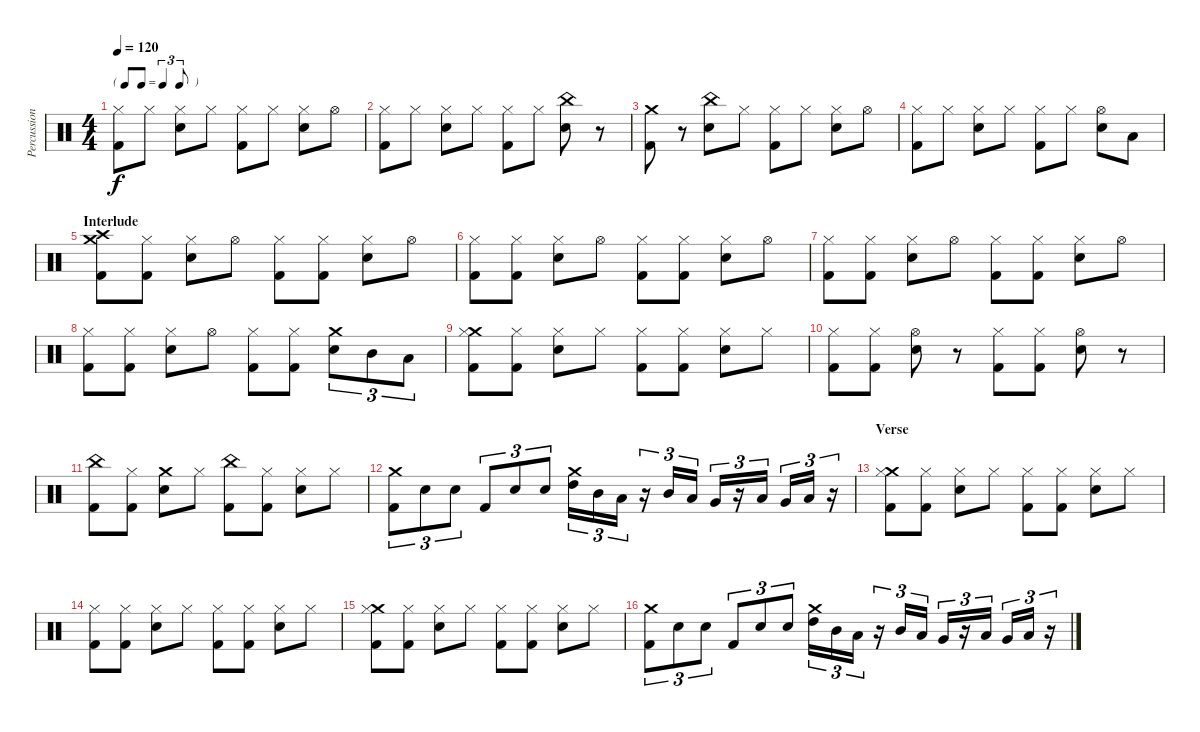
\track ("Percussion" "Percussion") {instrument percussion}
\staff {score}
\articulation defaults
\ts (4 4)
\tf triplet8th
\tempo 120
\clef neutral
\ks c
("Hi-Hat (closed)" "Kick (hit) 2").8{dy f} "Hi-Hat (closed)".8 ("Hi-Hat (closed)" "Electric Snare (hit)").8 "Hi-Hat (closed)".8 ("Hi-Hat (closed)" "Kick (hit) 2").8 "Hi-Hat (closed)".8 ("Hi-Hat (closed)" "Electric Snare (hit)").8 "Hi-Hat (open)".8 |
("Hi-Hat (closed)" "Kick (hit) 2").8 "Hi-Hat (closed)".8 ("Hi-Hat (closed)" "Electric Snare (hit)").8 "Hi-Hat (closed)".8 ("Hi-Hat (closed)" "Kick (hit) 2").8 "Hi-Hat (closed)".8 ("China (hit)" "Electric Snare (hit)").8 r.8 |
("Crash medium (hit)" "Kick (hit) 2").8 r.8 ("China (hit)" "Electric Snare (hit)").8 "Hi-Hat (closed)".8 ("Hi-Hat (closed)" "Kick (hit) 2").8 "Hi-Hat (closed)".8 ("Hi-Hat (closed)" "Electric Snare (hit)").8 "Hi-Hat (open)".8 |
("Hi-Hat (closed)" "Kick (hit) 2").8 "Hi-Hat (closed)".8 ("Hi-Hat (closed)" "Electric Snare (hit)").8 "Hi-Hat (closed)".8 ("Hi-Hat (closed)" "Kick (hit) 2").8 "Hi-Hat (closed)".8 ("Hi-Hat (open)" "Electric Snare (hit)").8 "Low Floor Tom (hit)".8 |
\section ("" "Interlude")
("Crash medium (hit)" "Crash high (hit)" "Kick (hit) 2").8 ("Hi-Hat (closed)" "Kick (hit) 2").8 ("Hi-Hat (closed)" "Electric Snare (hit)").8 "Hi-Hat (open)".8 ("Hi-Hat (closed)" "Kick (hit) 2").8 ("Hi-Hat (closed)" "Kick (hit) 2").8 ("Hi-Hat (closed)" "Electric Snare (hit)").8 "Hi-Hat (open)".8 |
("Hi-Hat (closed)" "Kick (hit) 2").8 ("Hi-Hat (closed)" "Kick (hit) 2").8 ("Hi-Hat (closed)" "Electric Snare (hit)").8 "Hi-Hat (open)".8 ("Hi-Hat (closed)" "Kick (hit) 2").8 ("Hi-Hat (closed)" "Kick (hit) 2").8 ("Hi-Hat (closed)" "Electric Snare (hit)").8 "Hi-Hat (open)".8 |
("Hi-Hat (closed)" "Kick (hit) 2").8 ("Hi-Hat (closed)" "Kick (hit) 2").8 ("Hi-Hat (closed)" "Electric Snare (hit)").8 "Hi-Hat (open)".8 ("Hi-Hat (closed)" "Kick (hit) 2").8 ("Hi-Hat (closed)" "Kick (hit) 2").8 ("Hi-Hat (closed)" "Electric Snare (hit)").8 "Hi-Hat (open)".8 |
("Hi-Hat (closed)" "Kick (hit) 2").8 ("Hi-Hat (closed)" "Kick (hit) 2").8 ("Hi-Hat (closed)" "Electric Snare (hit)").8 "Hi-Hat (open)".8 ("Hi-Hat (closed)" "Kick (hit) 2").8 ("Hi-Hat (closed)" "Kick (hit) 2").8 ("Crash medium (hit)" "Electric Snare (hit)").8{tu (3 2)} "Mid Tom (hit)".8{tu (3 2)} "Low Tom (hit)".8{tu (3 2)} |
("Crash medium (hit)" "Hi-Hat (closed)" "Kick (hit) 2").8 ("Hi-Hat (closed)" "Kick (hit) 2").8 ("Hi-Hat (closed)" "Electric Snare (hit)").8 "Hi-Hat (closed)".8 ("Hi-Hat (closed)" "Kick (hit) 2").8 ("Hi-Hat (closed)" "Kick (hit) 2").8 ("Hi-Hat (closed)" "Electric Snare (hit)").8 "Hi-Hat (closed)".8 |
("Hi-Hat (closed)" "Kick (hit) 2").8 ("Hi-Hat (closed)" "Kick (hit) 2").8 ("Hi-Hat (open)" "Electric Snare (hit)").8 r.8 ("Hi-Hat (closed)" "Kick (hit) 2").8 ("Hi-Hat (closed)" "Kick (hit) 2").8 ("Hi-Hat (open)" "Electric Snare (hit)").8 r.8 |
("China (hit)" "Kick (hit) 2").8 ("Hi-Hat (closed)" "Kick (hit) 2").8 ("Crash medium (hit)" "Electric Snare (hit)").8 "Hi-Hat (closed)".8 ("China (hit)" "Kick (hit) 2").8 ("Hi-Hat (closed)" "Kick (hit) 2").8 ("Hi-Hat (closed)" "Electric Snare (hit)").8 "Hi-Hat (closed)".8 |
("Crash medium (hit)" "Kick (hit) 2").8{tu (3 2)} "Electric Snare (hit)".8{tu (3 2)} "Electric Snare (hit)".8{tu (3 2)} "Kick (hit) 2".8{tu (3 2)} "Electric Snare (hit)".8{tu (3 2)} "Electric Snare (hit)".8{tu (3 2)} ("Crash medium (hit)" "High Tom (hit)").16{tu (3 2)} "Mid Tom (hit)".16{tu (3 2)} "Low Tom (hit)".16{tu (3 2)} r.16{tu (3 2)} "Mid Tom (hit)".16{tu (3 2)} "Low Tom (hit)".16{tu (3 2)} "Very Low Tom (hit)".16{tu (3 2)} r.16{tu (3 2)} "Low Tom (hit)".16{tu (3 2)} "Very Low Tom (hit)".16{tu (3 2)} "Low Floor Tom (hit)".16{tu (3 2)} r.16{tu (3 2)} |
\section ("" "Verse")
("Crash medium (hit)" "Hi-Hat (closed)" "Kick (hit) 2").8 ("Hi-Hat (closed)" "Kick (hit) 2").8 ("Hi-Hat (closed)" "Electric Snare (hit)").8 "Hi-Hat (closed)".8 ("Hi-Hat (closed)" "Kick (hit) 2").8 ("Hi-Hat (closed)" "Kick (hit) 2").8 ("Hi-Hat (closed)" "Electric Snare (hit)").8 "Hi-Hat (closed)".8 |
("Hi-Hat (closed)" "Kick (hit) 2").8 ("Hi-Hat (closed)" "Kick (hit) 2").8 ("Hi-Hat (closed)" "Electric Snare (hit)").8 "Hi-Hat (closed)".8 ("Hi-Hat (closed)" "Kick (hit) 2").8 ("Hi-Hat (closed)" "Kick (hit) 2").8 ("Hi-Hat (closed)" "Electric Snare (hit)").8 "Hi-Hat (closed)".8 |
("Crash medium (hit)" "Hi-Hat (closed)" "Kick (hit) 2").8 ("Hi-Hat (closed)" "Kick (hit) 2").8 ("Hi-Hat (closed)" "Electric Snare (hit)").8 "Hi-Hat (closed)".8 ("Hi-Hat (closed)" "Kick (hit) 2").8 ("Hi-Hat (closed)" "Kick (hit) 2").8 ("Hi-Hat (closed)" "Electric Snare (hit)").8 "Hi-Hat (closed)".8 |
("Crash medium (hit)" "Kick (hit) 2").8{tu (3 2)} "Electric Snare (hit)".8{tu (3 2)} "Electric Snare (hit)".8{tu (3 2)} "Kick (hit) 2".8{tu (3 2)} "Electric Snare (hit)".8{tu (3 2)} "Electric Snare (hit)".8{tu (3 2)} ("Crash medium (hit)" "High Tom (hit)").16{tu (3 2)} "Mid Tom (hit)".16{tu (3 2)} "Low Tom (hit)".16{tu (3 2)} r.16{tu (3 2)} "Mid Tom (hit)".16{tu (3 2)} "Low Tom (hit)".16{tu (3 2)} "Very Low Tom (hit)".16{tu (3 2)} r.16{tu (3 2)} "Low Tom (hit)".16{tu (3 2)} "Very Low Tom (hit)".16{tu (3 2)} "Low Floor Tom (hit)".16{tu (3 2)} r.16{tu (3 2)}
